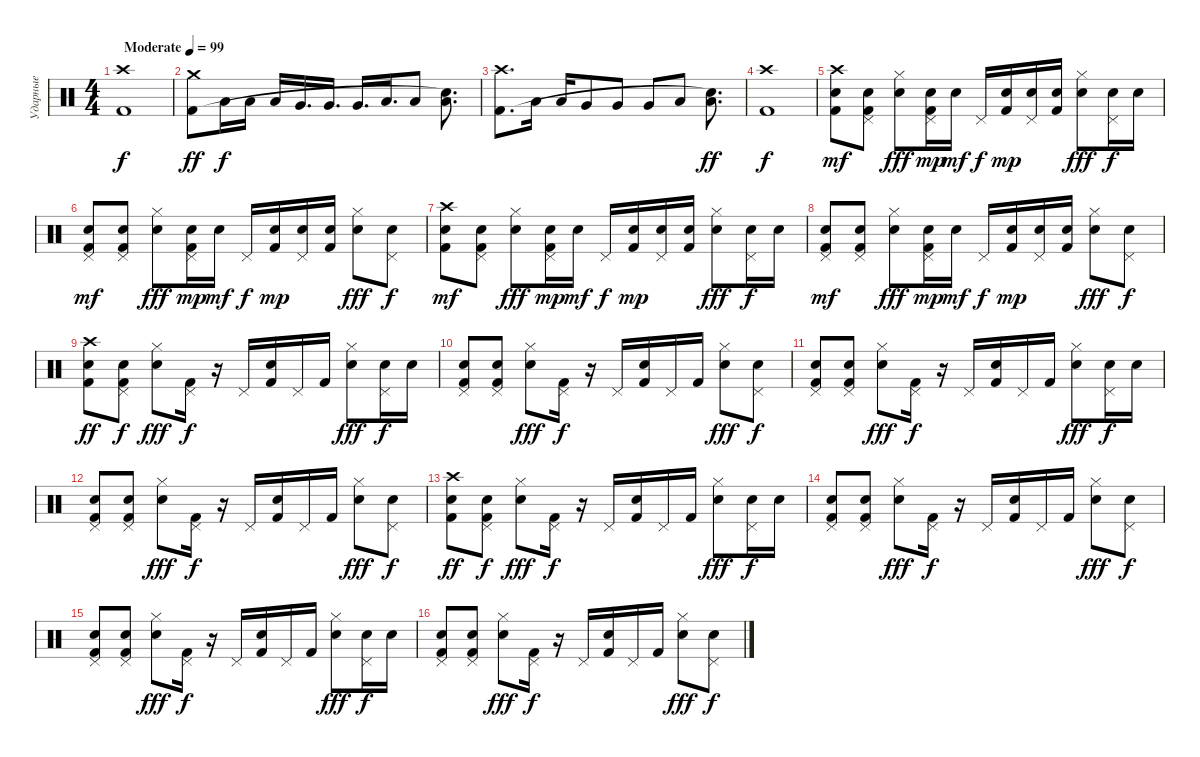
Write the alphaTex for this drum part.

\track ("Ударные" "Ударные") {instrument percussion}
\staff {score}
\articulation defaults
\ts (4 4)
\tempo (99 "Moderate")
\clef neutral
\ks c
("Crash high (hit)" "Kick (hit) 2").1{dy f} |
("Crash medium (hit)" "Kick (hit) 2").8{dy ff} "Low Tom (hit)".16{dy f} "Low Tom (hit)".16 "Low Tom (hit)".16 "Very Low Tom (hit)".16{d} "Very Low Tom (hit)".16{d} "Very Low Tom (hit)".16{d} "Low Floor Tom (hit)".16{d} "Low Floor Tom (hit)".8 ("Low Floor Tom (hit)" "Snare (hit)"{t}).8{d} |
("Crash high (hit)" "Kick (hit) 2").8{d} "Low Tom (hit)".16 "Low Tom (hit)".16 "Very Low Tom (hit)".8 "Very Low Tom (hit)".8 "Very Low Tom (hit)".8 "Low Floor Tom (hit)".8 ("Low Floor Tom (hit)" "Snare (hit)"{t}).8{d dy ff} |
("Crash high (hit)" "Kick (hit) 2").1{dy f} |
("Crash high (hit)" "Snare (hit) 2" "Kick (hit) 2").8{dy mf} ("Pedal Hi-Hat (hit)" "Snare (hit) 2" "Kick (hit) 2").8 ("Hi-Hat (closed)" "Snare (hit) 2").8{dy fff} ("Pedal Hi-Hat (hit)" "Snare (hit) 2" "Kick (hit) 2").16{dy mp} "Snare (hit) 2".16{dy mf} "Pedal Hi-Hat (hit)".16{dy f} ("Snare (hit) 2" "Kick (hit) 2").16{dy mp} ("Pedal Hi-Hat (hit)" "Snare (hit) 2").16 ("Snare (hit) 2" "Kick (hit) 2").16 ("Hi-Hat (closed)" "Snare (hit) 2").8{dy fff} ("Pedal Hi-Hat (hit)" "Snare (hit) 2").16{dy f} "Snare (hit) 2".16 |
("Pedal Hi-Hat (hit)" "Snare (hit) 2" "Kick (hit) 2").8{dy mf} ("Pedal Hi-Hat (hit)" "Snare (hit) 2" "Kick (hit) 2").8 ("Hi-Hat (closed)" "Snare (hit) 2").8{dy fff} ("Pedal Hi-Hat (hit)" "Snare (hit) 2" "Kick (hit) 2").16{dy mp} "Snare (hit) 2".16{dy mf} "Pedal Hi-Hat (hit)".16{dy f} ("Snare (hit) 2" "Kick (hit) 2").16{dy mp} ("Pedal Hi-Hat (hit)" "Snare (hit) 2").16 ("Snare (hit) 2" "Kick (hit) 2").16 ("Hi-Hat (closed)" "Snare (hit) 2").8{dy fff} ("Pedal Hi-Hat (hit)" "Snare (hit) 2").8{dy f} |
("Crash high (hit)" "Snare (hit) 2" "Kick (hit) 2").8{dy mf} ("Pedal Hi-Hat (hit)" "Snare (hit) 2" "Kick (hit) 2").8 ("Hi-Hat (closed)" "Snare (hit) 2").8{dy fff} ("Pedal Hi-Hat (hit)" "Snare (hit) 2" "Kick (hit) 2").16{dy mp} "Snare (hit) 2".16{dy mf} "Pedal Hi-Hat (hit)".16{dy f} ("Snare (hit) 2" "Kick (hit) 2").16{dy mp} ("Pedal Hi-Hat (hit)" "Snare (hit) 2").16 ("Snare (hit) 2" "Kick (hit) 2").16 ("Hi-Hat (closed)" "Snare (hit) 2").8{dy fff} ("Pedal Hi-Hat (hit)" "Snare (hit) 2").16{dy f} "Snare (hit) 2".16 |
("Pedal Hi-Hat (hit)" "Snare (hit) 2" "Kick (hit) 2").8{dy mf} ("Pedal Hi-Hat (hit)" "Snare (hit) 2" "Kick (hit) 2").8 ("Hi-Hat (closed)" "Snare (hit) 2").8{dy fff} ("Pedal Hi-Hat (hit)" "Snare (hit) 2" "Kick (hit) 2").16{dy mp} "Snare (hit) 2".16{dy mf} "Pedal Hi-Hat (hit)".16{dy f} ("Snare (hit) 2" "Kick (hit) 2").16{dy mp} ("Pedal Hi-Hat (hit)" "Snare (hit) 2").16 ("Snare (hit) 2" "Kick (hit) 2").16 ("Hi-Hat (closed)" "Snare (hit) 2").8{dy fff} ("Pedal Hi-Hat (hit)" "Snare (hit) 2").8{dy f} |
("Crash high (hit)" "Snare (hit) 2" "Kick (hit) 2").8{dy ff} ("Pedal Hi-Hat (hit)" "Snare (hit) 2" "Kick (hit) 2").8{dy f} ("Hi-Hat (closed)" "Snare (hit) 2").8{dy fff} ("Pedal Hi-Hat (hit)" "Kick (hit) 2").16{dy f} r.16 "Pedal Hi-Hat (hit)".16 ("Snare (hit) 2" "Kick (hit) 2").16 "Pedal Hi-Hat (hit)".16 "Kick (hit) 2".16 ("Hi-Hat (closed)" "Snare (hit) 2").8{dy fff} ("Pedal Hi-Hat (hit)" "Snare (hit) 2").16{dy f} "Snare (hit) 2".16 |
("Pedal Hi-Hat (hit)" "Snare (hit) 2" "Kick (hit) 2").8 ("Pedal Hi-Hat (hit)" "Snare (hit) 2" "Kick (hit) 2").8 ("Hi-Hat (closed)" "Snare (hit) 2").8{dy fff} ("Pedal Hi-Hat (hit)" "Kick (hit) 2").16{dy f} r.16 "Pedal Hi-Hat (hit)".16 ("Snare (hit) 2" "Kick (hit) 2").16 "Pedal Hi-Hat (hit)".16 "Kick (hit) 2".16 ("Hi-Hat (closed)" "Snare (hit) 2").8{dy fff} ("Pedal Hi-Hat (hit)" "Snare (hit) 2").8{dy f} |
("Pedal Hi-Hat (hit)" "Snare (hit) 2" "Kick (hit) 2").8 ("Pedal Hi-Hat (hit)" "Snare (hit) 2" "Kick (hit) 2").8 ("Hi-Hat (closed)" "Snare (hit) 2").8{dy fff} ("Pedal Hi-Hat (hit)" "Kick (hit) 2").16{dy f} r.16 "Pedal Hi-Hat (hit)".16 ("Snare (hit) 2" "Kick (hit) 2").16 "Pedal Hi-Hat (hit)".16 "Kick (hit) 2".16 ("Hi-Hat (closed)" "Snare (hit) 2").8{dy fff} ("Pedal Hi-Hat (hit)" "Snare (hit) 2").16{dy f} "Snare (hit) 2".16 |
("Pedal Hi-Hat (hit)" "Snare (hit) 2" "Kick (hit) 2").8 ("Pedal Hi-Hat (hit)" "Snare (hit) 2" "Kick (hit) 2").8 ("Hi-Hat (closed)" "Snare (hit) 2").8{dy fff} ("Pedal Hi-Hat (hit)" "Kick (hit) 2").16{dy f} r.16 "Pedal Hi-Hat (hit)".16 ("Snare (hit) 2" "Kick (hit) 2").16 "Pedal Hi-Hat (hit)".16 "Kick (hit) 2".16 ("Hi-Hat (closed)" "Snare (hit) 2").8{dy fff} ("Pedal Hi-Hat (hit)" "Snare (hit) 2").8{dy f} |
("Crash high (hit)" "Snare (hit) 2" "Kick (hit) 2").8{dy ff} ("Pedal Hi-Hat (hit)" "Snare (hit) 2" "Kick (hit) 2").8{dy f} ("Hi-Hat (closed)" "Snare (hit) 2").8{dy fff} ("Pedal Hi-Hat (hit)" "Kick (hit) 2").16{dy f} r.16 "Pedal Hi-Hat (hit)".16 ("Snare (hit) 2" "Kick (hit) 2").16 "Pedal Hi-Hat (hit)".16 "Kick (hit) 2".16 ("Hi-Hat (closed)" "Snare (hit) 2").8{dy fff} ("Pedal Hi-Hat (hit)" "Snare (hit) 2").16{dy f} "Snare (hit) 2".16 |
("Pedal Hi-Hat (hit)" "Snare (hit) 2" "Kick (hit) 2").8 ("Pedal Hi-Hat (hit)" "Snare (hit) 2" "Kick (hit) 2").8 ("Hi-Hat (closed)" "Snare (hit) 2").8{dy fff} ("Pedal Hi-Hat (hit)" "Kick (hit) 2").16{dy f} r.16 "Pedal Hi-Hat (hit)".16 ("Snare (hit) 2" "Kick (hit) 2").16 "Pedal Hi-Hat (hit)".16 "Kick (hit) 2".16 ("Hi-Hat (closed)" "Snare (hit) 2").8{dy fff} ("Pedal Hi-Hat (hit)" "Snare (hit) 2").8{dy f} |
("Pedal Hi-Hat (hit)" "Snare (hit) 2" "Kick (hit) 2").8 ("Pedal Hi-Hat (hit)" "Snare (hit) 2" "Kick (hit) 2").8 ("Hi-Hat (closed)" "Snare (hit) 2").8{dy fff} ("Pedal Hi-Hat (hit)" "Kick (hit) 2").16{dy f} r.16 "Pedal Hi-Hat (hit)".16 ("Snare (hit) 2" "Kick (hit) 2").16 "Pedal Hi-Hat (hit)".16 "Kick (hit) 2".16 ("Hi-Hat (closed)" "Snare (hit) 2").8{dy fff} ("Pedal Hi-Hat (hit)" "Snare (hit) 2").16{dy f} "Snare (hit) 2".16 |
("Pedal Hi-Hat (hit)" "Snare (hit) 2" "Kick (hit) 2").8 ("Pedal Hi-Hat (hit)" "Snare (hit) 2" "Kick (hit) 2").8 ("Hi-Hat (closed)" "Snare (hit) 2").8{dy fff} ("Pedal Hi-Hat (hit)" "Kick (hit) 2").16{dy f} r.16 "Pedal Hi-Hat (hit)".16 ("Snare (hit) 2" "Kick (hit) 2").16 "Pedal Hi-Hat (hit)".16 "Kick (hit) 2".16 ("Hi-Hat (closed)" "Snare (hit) 2").8{dy fff} ("Pedal Hi-Hat (hit)" "Snare (hit) 2").8{dy f}
